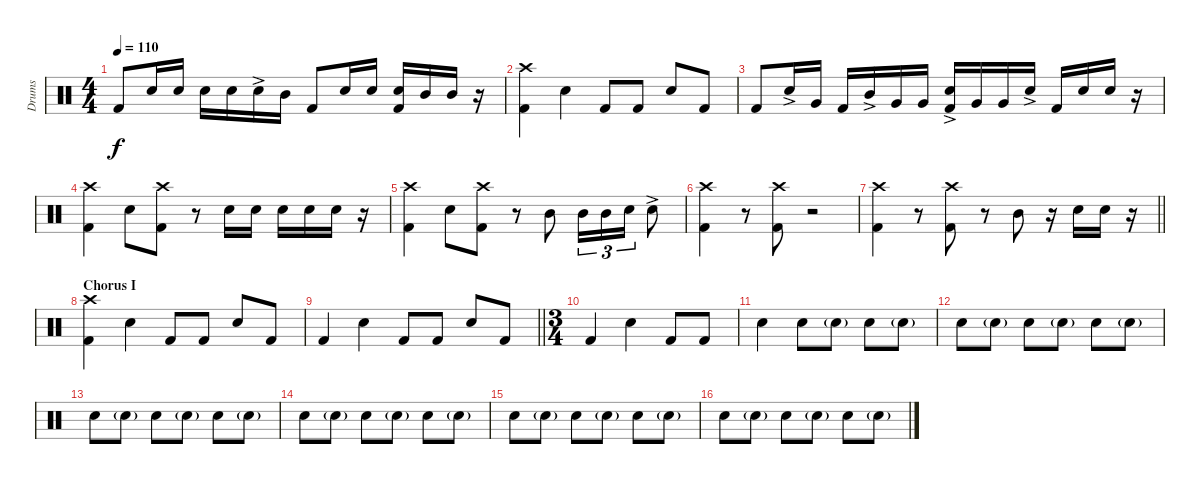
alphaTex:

\track ("Drums" "Drums") {instrument percussion}
\staff {score}
\articulation defaults
\ts (4 4)
\tempo 110
\clef neutral
\ks c "Kick (hit) 2".8{dy f} "Snare (hit) 2".16 "Snare (hit) 2".16 "Snare (hit) 2".16 "Snare (hit) 2".16 "Snare (hit) 2"{ac}.16 "Mid Tom (hit)".16 "Kick (hit) 2".8 "Snare (hit) 2".16 "Snare (hit) 2".16
("Snare (hit) 2" "Kick (hit) 2").16 "Mid Tom (hit)".16 "Mid Tom (hit)".16 r.16 |
("Crash high (hit)" "Kick (hit) 2").4 "Snare (hit) 2".4 "Kick (hit) 2".8 "Kick (hit) 2".8 "Snare (hit) 2".8 "Kick (hit) 2".8 |
"Kick (hit) 2".8 "Snare (hit) 2"{ac}.16 "Very Low Tom (hit)".16 "Kick (hit) 2".16 "Mid Tom (hit)"{ac}.16 "Very Low Tom (hit)".16 "Very Low Tom (hit)".16 ("Snare (hit) 2"{ac} "Kick (hit) 2").16 "Very Low Tom (hit)".16 "Very Low Tom (hit)".16 "Snare (hit) 2"{ac}.16 "Kick (hit) 2".16 "Snare (hit) 2".16 "Snare (hit) 2".16 r.16 |
("Crash high (hit)" "Kick (hit) 2").4 "Snare (hit) 2".8 ("Crash high (hit)" "Kick (hit) 2").8 r.8 "Snare (hit) 2".16 "Snare (hit) 2".16 "Snare (hit) 2".16 "Snare (hit) 2".16 "Snare (hit) 2".16 r.16 |
("Crash high (hit)" "Kick (hit) 2").4 "Snare (hit) 2".8 ("Crash high (hit)" "Kick (hit) 2").8 r.8 "Mid Tom (hit)".8 "Mid Tom (hit)".16{tu (3 2)} "Mid Tom (hit)".16{tu (3 2)} "Snare (hit) 2".16{tu (3 2)} "Snare (hit) 2"{ac}.8 |
("Crash high (hit)" "Kick (hit) 2").4 r.8 ("Crash high (hit)" "Kick (hit) 2").8 r.2 |
\barLineRight lightlight
("Crash high (hit)" "Kick (hit) 2").4 r.8 ("Crash high (hit)" "Kick (hit) 2").8 r.8 "Mid Tom (hit)".8 r.16 "Snare (hit) 2".16 "Snare (hit) 2".16 r.16 |
\section ("" "Chorus I")
("Crash high (hit)" "Kick (hit) 2").4 "Snare (hit) 2".4 "Kick (hit) 2".8 "Kick (hit) 2".8 "Snare (hit) 2".8 "Kick (hit) 2".8 |
\barLineRight lightlight "Kick (hit) 2".4 "Snare (hit) 2".4 "Kick (hit) 2".8 "Kick (hit) 2".8 "Snare (hit) 2".8 "Kick (hit) 2".8
|
\ts (3 4)
"Kick (hit) 2".4 "Snare (hit) 2".4 "Kick (hit) 2".8 "Kick (hit) 2".8 |
"Snare (hit) 2".4 "Snare (hit) 2".8 "Snare (hit) 2"{g}.8 "Snare (hit) 2".8 "Snare (hit) 2"{g}.8 |
"Snare (hit) 2".8 "Snare (hit) 2"{g}.8 "Snare (hit) 2".8 "Snare (hit) 2"{g}.8 "Snare (hit) 2".8 "Snare (hit) 2"{g}.8 |
"Snare (hit) 2".8 "Snare (hit) 2"{g}.8 "Snare (hit) 2".8 "Snare (hit) 2"{g}.8 "Snare (hit) 2".8 "Snare (hit) 2"{g}.8 |
"Snare (hit) 2".8 "Snare (hit) 2"{g}.8 "Snare (hit) 2".8 "Snare (hit) 2"{g}.8 "Snare (hit) 2".8 "Snare (hit) 2"{g}.8 |
"Snare (hit) 2".8 "Snare (hit) 2"{g}.8 "Snare (hit) 2".8 "Snare (hit) 2"{g}.8 "Snare (hit) 2".8 "Snare (hit) 2"{g}.8 |
"Snare (hit) 2".8 "Snare (hit) 2"{g}.8 "Snare (hit) 2".8 "Snare (hit) 2"{g}.8 "Snare (hit) 2".8 "Snare (hit) 2"{g}.8
